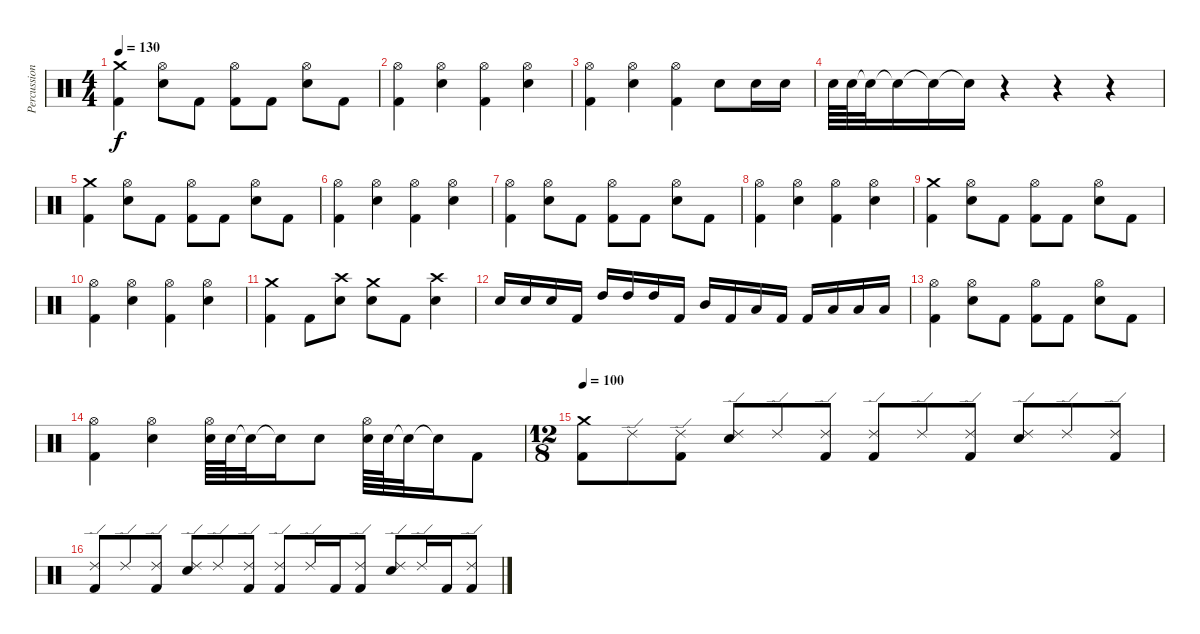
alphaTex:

\track ("Percussions" "Percussion") {instrument percussion}
\staff {score}
\articulation defaults
\ts (4 4)
\tempo 130
\clef neutral
\ks c
("Crash medium (hit)" "Kick (hit) 2").4{dy f} ("Hi-Hat (open)" "Electric Snare (hit)").8 "Kick (hit) 2".8 ("Hi-Hat (open)" "Kick (hit) 2").8 "Kick (hit) 2".8 ("Hi-Hat (open)" "Electric Snare (hit)").8 "Kick (hit) 2".8 |
("Hi-Hat (open)" "Kick (hit) 2").4 ("Hi-Hat (open)" "Electric Snare (hit)").4 ("Hi-Hat (open)" "Kick (hit) 2").4 ("Hi-Hat (open)" "Electric Snare (hit)").4 |
("Hi-Hat (open)" "Kick (hit) 2").4 ("Hi-Hat (open)" "Electric Snare (hit)").4 ("Hi-Hat (open)" "Kick (hit) 2").4 "Electric Snare (hit)".8 "Electric Snare (hit)".16 "Electric Snare (hit)".16 |
"Electric Snare (hit)".64 "Electric Snare (hit)".64 "Snare (hit)"{t}.32 "Snare (hit)"{t}.16 "Snare (hit)"{t}.16 "Snare (hit)"{t}.16 r.4 r.4 r.4 |
("Crash medium (hit)" "Kick (hit) 2").4 ("Hi-Hat (open)" "Electric Snare (hit)").8 "Kick (hit) 2".8 ("Hi-Hat (open)" "Kick (hit) 2").8 "Kick (hit) 2".8 ("Hi-Hat (open)" "Electric Snare (hit)").8 "Kick (hit) 2".8 |
("Hi-Hat (open)" "Kick (hit) 2").4 ("Hi-Hat (open)" "Electric Snare (hit)").4 ("Hi-Hat (open)" "Kick (hit) 2").4 ("Hi-Hat (open)" "Electric Snare (hit)").4 |
("Hi-Hat (open)" "Kick (hit) 2").4 ("Hi-Hat (open)" "Electric Snare (hit)").8 "Kick (hit) 2".8 ("Hi-Hat (open)" "Kick (hit) 2").8 "Kick (hit) 2".8 ("Hi-Hat (open)" "Electric Snare (hit)").8 "Kick (hit) 2".8 |
("Hi-Hat (open)" "Kick (hit) 2").4 ("Hi-Hat (open)" "Electric Snare (hit)").4 ("Hi-Hat (open)" "Kick (hit) 2").4 ("Hi-Hat (open)" "Electric Snare (hit)").4 |
("Crash medium (hit)" "Kick (hit) 2").4 ("Hi-Hat (open)" "Electric Snare (hit)").8 "Kick (hit) 2".8 ("Hi-Hat (open)" "Kick (hit) 2").8 "Kick (hit) 2".8 ("Hi-Hat (open)" "Electric Snare (hit)").8 "Kick (hit) 2".8 |
("Hi-Hat (open)" "Kick (hit) 2").4 ("Hi-Hat (open)" "Electric Snare (hit)").4 ("Hi-Hat (open)" "Kick (hit) 2").4 ("Hi-Hat (open)" "Electric Snare (hit)").4 |
("Crash medium (hit)" "Kick (hit) 2").4 "Kick (hit) 2".8 ("Crash high (hit)" "Electric Snare (hit)").8 ("Crash medium (hit)" "Electric Snare (hit)").8 "Kick (hit) 2".8 ("Crash high (hit)" "Electric Snare (hit)").4 |
"Electric Snare (hit)".16 "Electric Snare (hit)".16 "Electric Snare (hit)".16 "Kick (hit) 2".16 "High Tom (hit)".16 "High Tom (hit)".16 "High Tom (hit)".16 "Kick (hit) 2".16 "Mid Tom (hit)".16 "Kick (hit) 2".16 "Low Tom (hit)".16 "Kick (hit) 2".16 "Kick (hit) 2".16 "Low Tom (hit)".16 "Low Tom (hit)".16 "Low Tom (hit)".16 |
("Hi-Hat (open)" "Kick (hit) 2").4 ("Hi-Hat (open)" "Electric Snare (hit)").8 "Kick (hit) 2".8 ("Hi-Hat (open)" "Kick (hit) 2").8 "Kick (hit) 2".8 ("Hi-Hat (open)" "Electric Snare (hit)").8 "Kick (hit) 2".8 |
("Hi-Hat (open)" "Kick (hit) 2").4 ("Hi-Hat (open)" "Electric Snare (hit)").4 ("Hi-Hat (open)" "Electric Snare (hit)").64 "Electric Snare (hit)".64 "Snare (hit)"{t}.32 "Snare (hit)"{t}.16 "Electric Snare (hit)".8 ("Hi-Hat (open)" "Electric Snare (hit)").64 "Electric Snare (hit)".64 "Snare (hit)"{t}.32 "Snare (hit)"{t}.16 "Kick (hit) 2".8 |
\ts (12 8)
\tempo 100
("Crash medium (hit)" "Kick (hit) 2").8 "Ride (edge) 2".8 ("Ride (edge) 2" "Kick (hit) 2").8 ("Ride (edge) 2" "Electric Snare (hit)").8 "Ride (edge) 2".8 ("Ride (edge) 2" "Kick (hit) 2").8 ("Ride (edge) 2" "Kick (hit) 2").8 "Ride (edge) 2".8 ("Ride (edge) 2" "Kick (hit) 2").8 ("Ride (edge) 2" "Electric Snare (hit)").8 "Ride (edge) 2".8 ("Ride (edge) 2" "Kick (hit) 2").8 |
("Ride (edge) 2" "Kick (hit) 2").8 "Ride (edge) 2".8 ("Ride (edge) 2" "Kick (hit) 2").8 ("Ride (edge) 2" "Electric Snare (hit)").8 "Ride (edge) 2".8 ("Ride (edge) 2" "Kick (hit) 2").8 ("Ride (edge) 2" "Kick (hit) 2").8 "Ride (edge) 2".16 "Kick (hit) 2".16 ("Ride (edge) 2" "Kick (hit) 2").8 ("Ride (edge) 2" "Electric Snare (hit)").8 "Ride (edge) 2".16 "Kick (hit) 2".16 ("Ride (edge) 2" "Kick (hit) 2").8
